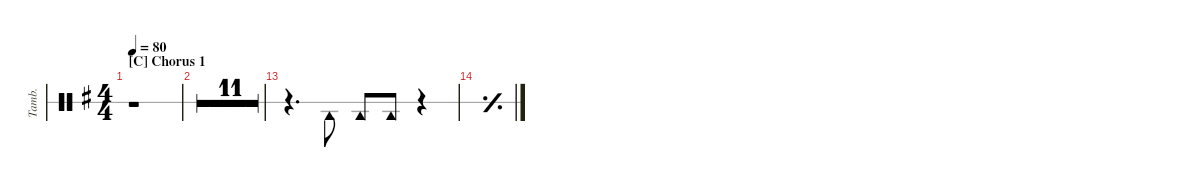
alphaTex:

\hideDynamics
\bracketExtendMode nobrackets
\otherSystemsTrackNameOrientation horizontal
\track ("Tambourine" "Tamb.") {multiBarRest instrument percussion}
\staff {score 1}
\articulation defaults
\ts (4 4)
\section ("C" "Chorus 1")
\tempo 80
\clef neutral
\ks g
r.1{dy mf beam Down} |
r.1{beam Down} |
r.1{beam Down} |
r.1{beam Down} |
r.1{beam Down} |
r.1{beam Down} |
r.1{beam Down} |
r.1{beam Down} |
r.1{beam Down} |
r.1{beam Down} |
r.1{beam Down} |
\barLineRight lightlight
r.1{beam Down} |
r.4{d beam Down} "Tambourine (hit)"{acc forcenatural}.8{beam Down} "Tambourine (hit)"{acc forcenatural}.8{beam Up} "Tambourine (hit)"{acc forcenatural}.8{beam Up} r.4{beam Up} |
\simile simple
